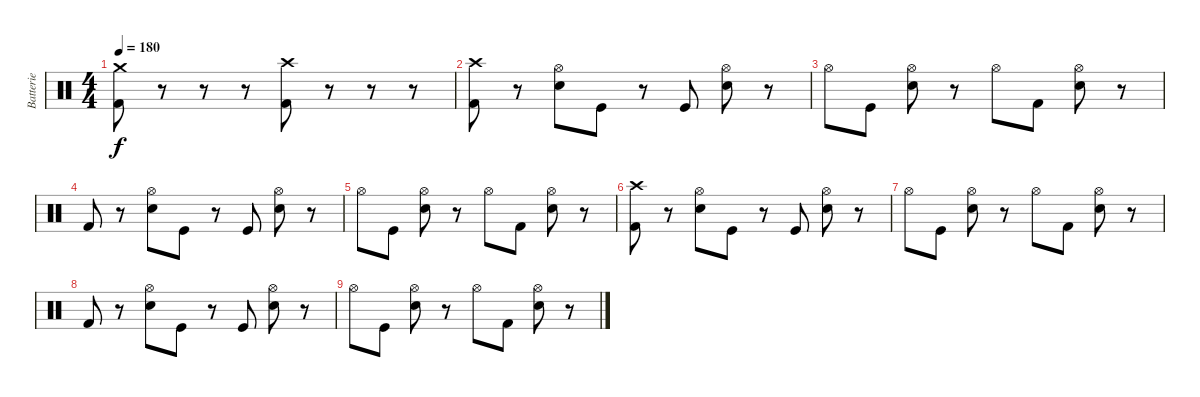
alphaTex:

\track ("Batterie" "Batterie") {instrument percussion}
\staff {score}
\articulation defaults
\ts (4 4)
\tempo 180
\clef neutral
\ks c
("Crash medium (hit)" "Kick (hit) 2").8{dy f} r.8 r.8 r.8 ("Crash high (hit)" "Kick (hit) 2").8 r.8 r.8 r.8 |
("Crash high (hit)" "Kick (hit) 2").8 r.8 ("Hi-Hat (open)" "Electric Snare (hit)").8 "Kick (hit)".8 r.8 "Kick (hit)".8 ("Hi-Hat (open)" "Electric Snare (hit)").8 r.8 |
"Hi-Hat (open)".8 "Kick (hit)".8 ("Hi-Hat (open)" "Electric Snare (hit)").8 r.8 "Hi-Hat (open)".8 "Kick (hit) 2".8 ("Hi-Hat (open)" "Electric Snare (hit)").8 r.8 |
"Kick (hit) 2".8 r.8 ("Hi-Hat (open)" "Electric Snare (hit)").8 "Kick (hit)".8 r.8 "Kick (hit)".8 ("Hi-Hat (open)" "Electric Snare (hit)").8 r.8 |
"Hi-Hat (open)".8 "Kick (hit)".8 ("Hi-Hat (open)" "Electric Snare (hit)").8 r.8 "Hi-Hat (open)".8 "Kick (hit) 2".8 ("Hi-Hat (open)" "Electric Snare (hit)").8 r.8 |
("Crash high (hit)" "Kick (hit) 2").8 r.8 ("Hi-Hat (open)" "Electric Snare (hit)").8 "Kick (hit)".8 r.8 "Kick (hit)".8 ("Hi-Hat (open)" "Electric Snare (hit)").8 r.8 |
"Hi-Hat (open)".8 "Kick (hit)".8 ("Hi-Hat (open)" "Electric Snare (hit)").8 r.8 "Hi-Hat (open)".8 "Kick (hit) 2".8 ("Hi-Hat (open)" "Electric Snare (hit)").8 r.8 |
"Kick (hit) 2".8 r.8 ("Hi-Hat (open)" "Electric Snare (hit)").8 "Kick (hit)".8 r.8 "Kick (hit)".8 ("Hi-Hat (open)" "Electric Snare (hit)").8 r.8 |
"Hi-Hat (open)".8 "Kick (hit)".8 ("Hi-Hat (open)" "Electric Snare (hit)").8 r.8 "Hi-Hat (open)".8 "Kick (hit) 2".8 ("Hi-Hat (open)" "Electric Snare (hit)").8 r.8
